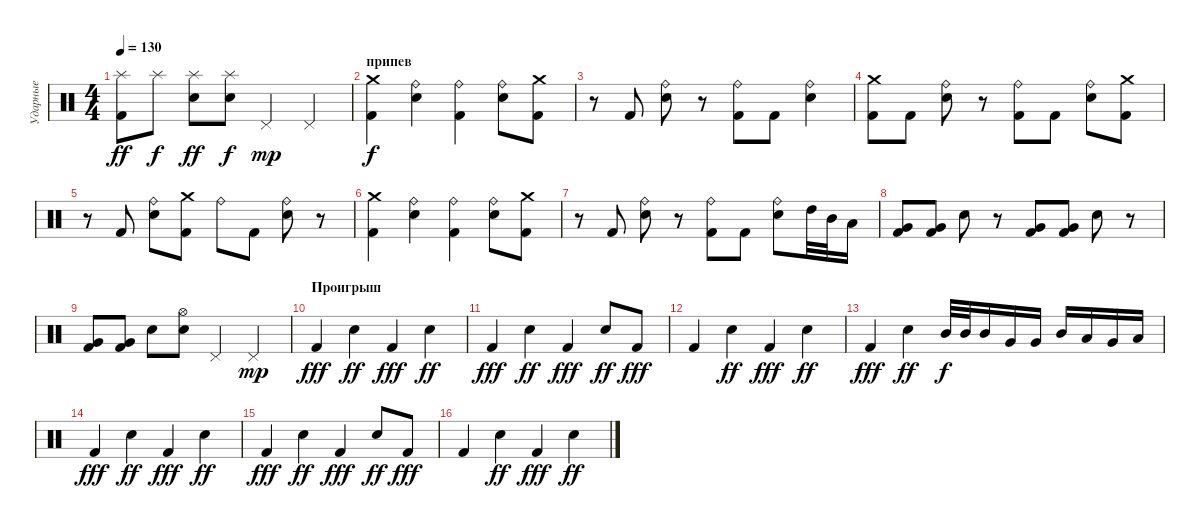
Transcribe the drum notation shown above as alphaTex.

\track ("Ударные" "Ударные") {instrument percussion}
\staff {score}
\articulation defaults
\ts (4 4)
\tempo 130
\clef neutral
\ks c
("Kick (hit) 2" "Splash (hit)").8{dy ff} "Splash (hit)".8{dy f} ("Electric Snare (hit)" "Splash (hit)").8{dy ff} ("Electric Snare (hit)" "Splash (hit)").8{dy f} "Pedal Hi-Hat (hit)".4{dy mp} "Pedal Hi-Hat (hit)".4 |
\section ("" "припев")
("Kick (hit) 2" "Crash medium (hit)").4{dy f} ("Electric Snare (hit)" "Ride (bell)").4 ("Kick (hit) 2" "Ride (bell)").4 ("Electric Snare (hit)" "Ride (bell)").8 ("Kick (hit) 2" "Crash medium (hit)").8 |
r.8 "Kick (hit) 2".8 ("Electric Snare (hit)" "Ride (bell)").8 r.8 ("Kick (hit) 2" "Ride (bell)").8 "Kick (hit) 2".8 ("Electric Snare (hit)" "Ride (bell)").4 |
("Kick (hit) 2" "Crash medium (hit)").8 "Kick (hit) 2".8 ("Electric Snare (hit)" "Ride (bell)").8 r.8 ("Kick (hit) 2" "Ride (bell)").8 "Kick (hit) 2".8 ("Electric Snare (hit)" "Ride (bell)").8 ("Kick (hit) 2" "Crash medium (hit)").8 |
r.8 "Kick (hit) 2".8 ("Electric Snare (hit)" "Ride (bell)").8 ("Kick (hit) 2" "Crash medium (hit)").8 "Ride (bell)".8 "Kick (hit) 2".8 ("Electric Snare (hit)" "Ride (bell)").8 r.8 |
("Kick (hit) 2" "Crash medium (hit)").4 ("Electric Snare (hit)" "Ride (bell)").4 ("Kick (hit) 2" "Ride (bell)").4 ("Electric Snare (hit)" "Ride (bell)").8 ("Kick (hit) 2" "Crash medium (hit)").8 |
r.8 "Kick (hit) 2".8 ("Electric Snare (hit)" "Ride (bell)").8 r.8 ("Kick (hit) 2" "Ride (bell)").8 "Kick (hit) 2".8 ("Electric Snare (hit)" "Ride (bell)").8 "High Tom (hit)".32 "Mid Tom (hit)".32 "Low Tom (hit)".16 |
("Kick (hit) 2" "Very Low Tom (hit)").8 ("Kick (hit) 2" "Very Low Tom (hit)").8 "Electric Snare (hit)".8 r.8 ("Kick (hit) 2" "Very Low Tom (hit)").8 ("Kick (hit) 2" "Very Low Tom (hit)").8 "Electric Snare (hit)".8 r.8 |
("Kick (hit) 2" "Very Low Tom (hit)").8 ("Kick (hit) 2" "Very Low Tom (hit)").8 "Electric Snare (hit)".8 ("Hi-Hat (open)" "Electric Snare (hit)").8 "Pedal Hi-Hat (hit)".4 "Pedal Hi-Hat (hit)".4{dy mp} |
\section ("" "Проигрыш")
"Kick (hit) 2".4{dy fff} "Electric Snare (hit)".4{dy ff} "Kick (hit) 2".4{dy fff} "Electric Snare (hit)".4{dy ff} |
"Kick (hit) 2".4{dy fff} "Electric Snare (hit)".4{dy ff} "Kick (hit) 2".4{dy fff} "Electric Snare (hit)".8{dy ff} "Kick (hit) 2".8{dy fff} |
"Kick (hit) 2".4 "Electric Snare (hit)".4{dy ff} "Kick (hit) 2".4{dy fff} "Electric Snare (hit)".4{dy ff} |
"Kick (hit) 2".4{dy fff} "Electric Snare (hit)".4{dy ff} "Mid Tom (hit)".32{dy f} "Mid Tom (hit)".32 "Mid Tom (hit)".16 "Very Low Tom (hit)".16 "Very Low Tom (hit)".16 "Mid Tom (hit)".16 "Low Tom (hit)".16 "Very Low Tom (hit)".16 "Low Floor Tom (hit)".16 |
"Kick (hit) 2".4{dy fff} "Electric Snare (hit)".4{dy ff} "Kick (hit) 2".4{dy fff} "Electric Snare (hit)".4{dy ff} |
"Kick (hit) 2".4{dy fff} "Electric Snare (hit)".4{dy ff} "Kick (hit) 2".4{dy fff} "Electric Snare (hit)".8{dy ff} "Kick (hit) 2".8{dy fff} |
"Kick (hit) 2".4 "Electric Snare (hit)".4{dy ff} "Kick (hit) 2".4{dy fff} "Electric Snare (hit)".4{dy ff}
